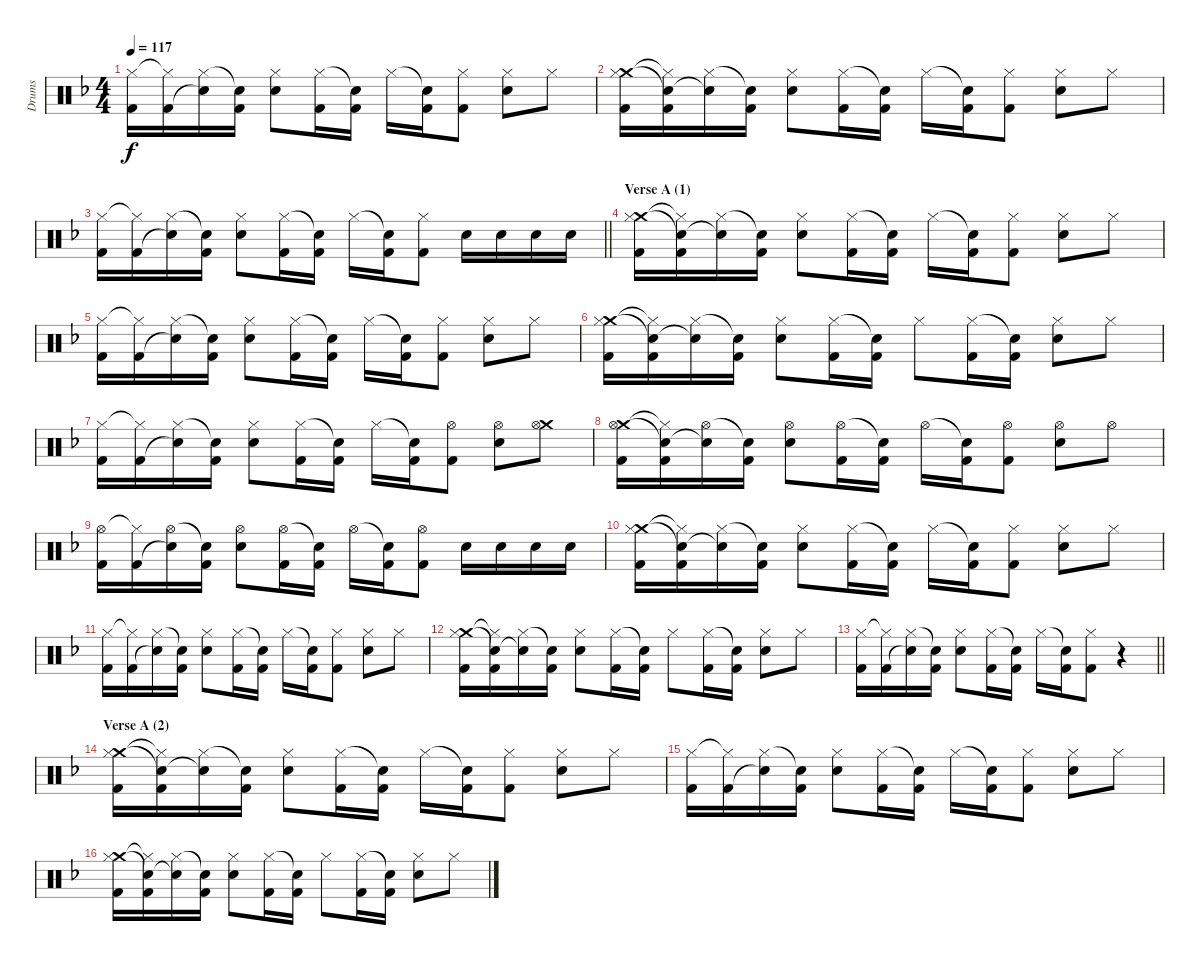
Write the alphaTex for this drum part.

\track ("Drums" "Drums") {instrument percussion}
\staff {score}
\articulation defaults
\ts (4 4)
\tempo 117
\clef neutral
\ks dminor
("Hi-Hat (closed)" "Kick (hit) 2").16{dy f} ("Hi-Hat (closed)"{t} "Kick (hit) 2").16 ("Hi-Hat (closed)" "Snare (hit)"{t}).16 ("Snare (hit)"{t} "Kick (hit) 2").16 ("Hi-Hat (closed)" "Electric Snare (hit)").8 ("Hi-Hat (closed)" "Kick (hit) 2").16 ("Snare (hit)"{t} "Kick (hit) 2").16 "Hi-Hat (closed)".16 ("Snare (hit)"{t} "Kick (hit) 2").16 ("Hi-Hat (closed)" "Kick (hit) 2").8 ("Hi-Hat (closed)" "Electric Snare (hit)").8 "Hi-Hat (closed)".8 |
("Crash medium (hit)" "Hi-Hat (closed)" "Kick (hit) 2").16 ("Hi-Hat (closed)"{t} "Snare (hit)"{t} "Kick (hit) 2").16 ("Hi-Hat (closed)" "Snare (hit)"{t}).16 ("Snare (hit)"{t} "Kick (hit) 2").16 ("Hi-Hat (closed)" "Electric Snare (hit)").8 ("Hi-Hat (closed)" "Kick (hit) 2").16 ("Snare (hit)"{t} "Kick (hit) 2").16 "Hi-Hat (closed)".16 ("Snare (hit)"{t} "Kick (hit) 2").16 ("Hi-Hat (closed)" "Kick (hit) 2").8 ("Hi-Hat (closed)" "Electric Snare (hit)").8 "Hi-Hat (closed)".8 |
\barLineRight lightlight
("Hi-Hat (closed)" "Kick (hit) 2").16 ("Hi-Hat (closed)"{t} "Kick (hit) 2").16 ("Hi-Hat (closed)" "Snare (hit)"{t}).16 ("Snare (hit)"{t} "Kick (hit) 2").16 ("Hi-Hat (closed)" "Electric Snare (hit)").8 ("Hi-Hat (closed)" "Kick (hit) 2").16 ("Snare (hit)"{t} "Kick (hit) 2").16 "Hi-Hat (closed)".16 ("Snare (hit)"{t} "Kick (hit) 2").16 ("Hi-Hat (closed)" "Kick (hit) 2").8 "Electric Snare (hit)".16 "Electric Snare (hit)".16 "Electric Snare (hit)".16 "Electric Snare (hit)".16 |
\section ("" "Verse A (1)")
("Crash medium (hit)" "Hi-Hat (closed)" "Kick (hit) 2").16 ("Hi-Hat (closed)"{t} "Snare (hit)"{t} "Kick (hit) 2").16 ("Hi-Hat (closed)" "Snare (hit)"{t}).16 ("Snare (hit)"{t} "Kick (hit) 2").16 ("Hi-Hat (closed)" "Electric Snare (hit)").8 ("Hi-Hat (closed)" "Kick (hit) 2").16 ("Snare (hit)"{t} "Kick (hit) 2").16 "Hi-Hat (closed)".16 ("Snare (hit)"{t} "Kick (hit) 2").16 ("Hi-Hat (closed)" "Kick (hit) 2").8 ("Hi-Hat (closed)" "Electric Snare (hit)").8 "Hi-Hat (closed)".8 |
("Hi-Hat (closed)" "Kick (hit) 2").16 ("Hi-Hat (closed)"{t} "Kick (hit) 2").16 ("Hi-Hat (closed)" "Snare (hit)"{t}).16 ("Snare (hit)"{t} "Kick (hit) 2").16 ("Hi-Hat (closed)" "Electric Snare (hit)").8 ("Hi-Hat (closed)" "Kick (hit) 2").16 ("Snare (hit)"{t} "Kick (hit) 2").16 "Hi-Hat (closed)".16 ("Snare (hit)"{t} "Kick (hit) 2").16 ("Hi-Hat (closed)" "Kick (hit) 2").8 ("Hi-Hat (closed)" "Electric Snare (hit)").8 "Hi-Hat (closed)".8 |
("Crash medium (hit)" "Hi-Hat (closed)" "Kick (hit) 2").16 ("Hi-Hat (closed)"{t} "Snare (hit)"{t} "Kick (hit) 2").16 ("Hi-Hat (closed)" "Snare (hit)"{t}).16 ("Snare (hit)"{t} "Kick (hit) 2").16 ("Hi-Hat (closed)" "Electric Snare (hit)").8 ("Hi-Hat (closed)" "Kick (hit) 2").16 ("Snare (hit)"{t} "Kick (hit) 2").16 "Hi-Hat (closed)".8 ("Hi-Hat (closed)" "Kick (hit) 2").16 ("Snare (hit)"{t} "Kick (hit) 2").16 ("Hi-Hat (closed)" "Electric Snare (hit)").8 "Hi-Hat (closed)".8 |
("Hi-Hat (closed)" "Kick (hit) 2").16 ("Hi-Hat (closed)"{t} "Kick (hit) 2").16 ("Hi-Hat (closed)" "Snare (hit)"{t}).16 ("Snare (hit)"{t} "Kick (hit) 2").16 ("Hi-Hat (closed)" "Electric Snare (hit)").8 ("Hi-Hat (closed)" "Kick (hit) 2").16 ("Snare (hit)"{t} "Kick (hit) 2").16 "Hi-Hat (closed)".16 ("Snare (hit)"{t} "Kick (hit) 2").16 ("Hi-Hat (open)" "Kick (hit) 2").8 ("Hi-Hat (open)" "Electric Snare (hit)").8 ("Crash medium (hit)" "Hi-Hat (open)").8 |
("Crash medium (hit)" "Hi-Hat (open)" "Kick (hit) 2").16 ("Hi-Hat (closed)"{t} "Snare (hit)"{t} "Kick (hit) 2").16 ("Hi-Hat (open)" "Snare (hit)"{t}).16 ("Snare (hit)"{t} "Kick (hit) 2").16 ("Hi-Hat (open)" "Electric Snare (hit)").8 ("Hi-Hat (open)" "Kick (hit) 2").16 ("Snare (hit)"{t} "Kick (hit) 2").16 "Hi-Hat (open)".16 ("Snare (hit)"{t} "Kick (hit) 2").16 ("Hi-Hat (open)" "Kick (hit) 2").8 ("Hi-Hat (open)" "Electric Snare (hit)").8 "Hi-Hat (open)".8 |
("Hi-Hat (open)" "Kick (hit) 2").16 ("Hi-Hat (closed)"{t} "Kick (hit) 2").16 ("Hi-Hat (open)" "Snare (hit)"{t}).16 ("Snare (hit)"{t} "Kick (hit) 2").16 ("Hi-Hat (open)" "Electric Snare (hit)").8 ("Hi-Hat (open)" "Kick (hit) 2").16 ("Snare (hit)"{t} "Kick (hit) 2").16 "Hi-Hat (open)".16 ("Snare (hit)"{t} "Kick (hit) 2").16 ("Hi-Hat (open)" "Kick (hit) 2").8 "Electric Snare (hit)".16 "Electric Snare (hit)".16 "Electric Snare (hit)".16 "Electric Snare (hit)".16 |
("Crash medium (hit)" "Hi-Hat (closed)" "Kick (hit) 2").16 ("Hi-Hat (closed)"{t} "Snare (hit)"{t} "Kick (hit) 2").16 ("Hi-Hat (closed)" "Snare (hit)"{t}).16 ("Snare (hit)"{t} "Kick (hit) 2").16 ("Hi-Hat (closed)" "Electric Snare (hit)").8 ("Hi-Hat (closed)" "Kick (hit) 2").16 ("Snare (hit)"{t} "Kick (hit) 2").16 "Hi-Hat (closed)".16 ("Snare (hit)"{t} "Kick (hit) 2").16 ("Hi-Hat (closed)" "Kick (hit) 2").8 ("Hi-Hat (closed)" "Electric Snare (hit)").8 "Hi-Hat (closed)".8 |
("Hi-Hat (closed)" "Kick (hit) 2").16 ("Hi-Hat (closed)"{t} "Kick (hit) 2").16 ("Hi-Hat (closed)" "Snare (hit)"{t}).16 ("Snare (hit)"{t} "Kick (hit) 2").16 ("Hi-Hat (closed)" "Electric Snare (hit)").8 ("Hi-Hat (closed)" "Kick (hit) 2").16 ("Snare (hit)"{t} "Kick (hit) 2").16 "Hi-Hat (closed)".16 ("Snare (hit)"{t} "Kick (hit) 2").16 ("Hi-Hat (closed)" "Kick (hit) 2").8 ("Hi-Hat (closed)" "Electric Snare (hit)").8 "Hi-Hat (closed)".8 |
("Crash medium (hit)" "Hi-Hat (closed)" "Kick (hit) 2").16 ("Hi-Hat (closed)"{t} "Snare (hit)"{t} "Kick (hit) 2").16 ("Hi-Hat (closed)" "Snare (hit)"{t}).16 ("Snare (hit)"{t} "Kick (hit) 2").16 ("Hi-Hat (closed)" "Electric Snare (hit)").8 ("Hi-Hat (closed)" "Kick (hit) 2").16 ("Snare (hit)"{t} "Kick (hit) 2").16 "Hi-Hat (closed)".8 ("Hi-Hat (closed)" "Kick (hit) 2").16 ("Snare (hit)"{t} "Kick (hit) 2").16 ("Hi-Hat (closed)" "Electric Snare (hit)").8 "Hi-Hat (closed)".8 |
\barLineRight lightlight
("Hi-Hat (closed)" "Kick (hit) 2").16 ("Hi-Hat (closed)"{t} "Kick (hit) 2").16 ("Hi-Hat (closed)" "Snare (hit)"{t}).16 ("Snare (hit)"{t} "Kick (hit) 2").16 ("Hi-Hat (closed)" "Electric Snare (hit)").8 ("Hi-Hat (closed)" "Kick (hit) 2").16 ("Snare (hit)"{t} "Kick (hit) 2").16 "Hi-Hat (closed)".16 ("Snare (hit)"{t} "Kick (hit) 2").16 ("Hi-Hat (closed)" "Kick (hit) 2").8 r.4 |
\section ("" "Verse A (2)")
("Crash medium (hit)" "Hi-Hat (closed)" "Kick (hit) 2").16 ("Hi-Hat (closed)"{t} "Snare (hit)"{t} "Kick (hit) 2").16 ("Hi-Hat (closed)" "Snare (hit)"{t}).16 ("Snare (hit)"{t} "Kick (hit) 2").16 ("Hi-Hat (closed)" "Electric Snare (hit)").8 ("Hi-Hat (closed)" "Kick (hit) 2").16 ("Snare (hit)"{t} "Kick (hit) 2").16 "Hi-Hat (closed)".16 ("Snare (hit)"{t} "Kick (hit) 2").16 ("Hi-Hat (closed)" "Kick (hit) 2").8 ("Hi-Hat (closed)" "Electric Snare (hit)").8 "Hi-Hat (closed)".8 |
("Hi-Hat (closed)" "Kick (hit) 2").16 ("Hi-Hat (closed)"{t} "Kick (hit) 2").16 ("Hi-Hat (closed)" "Snare (hit)"{t}).16 ("Snare (hit)"{t} "Kick (hit) 2").16 ("Hi-Hat (closed)" "Electric Snare (hit)").8 ("Hi-Hat (closed)" "Kick (hit) 2").16 ("Snare (hit)"{t} "Kick (hit) 2").16 "Hi-Hat (closed)".16 ("Snare (hit)"{t} "Kick (hit) 2").16 ("Hi-Hat (closed)" "Kick (hit) 2").8 ("Hi-Hat (closed)" "Electric Snare (hit)").8 "Hi-Hat (closed)".8 |
("Crash medium (hit)" "Hi-Hat (closed)" "Kick (hit) 2").16 ("Hi-Hat (closed)"{t} "Snare (hit)"{t} "Kick (hit) 2").16 ("Hi-Hat (closed)" "Snare (hit)"{t}).16 ("Snare (hit)"{t} "Kick (hit) 2").16 ("Hi-Hat (closed)" "Electric Snare (hit)").8 ("Hi-Hat (closed)" "Kick (hit) 2").16 ("Snare (hit)"{t} "Kick (hit) 2").16 "Hi-Hat (closed)".8 ("Hi-Hat (closed)" "Kick (hit) 2").16 ("Snare (hit)"{t} "Kick (hit) 2").16 ("Hi-Hat (closed)" "Electric Snare (hit)").8 "Hi-Hat (closed)".8
